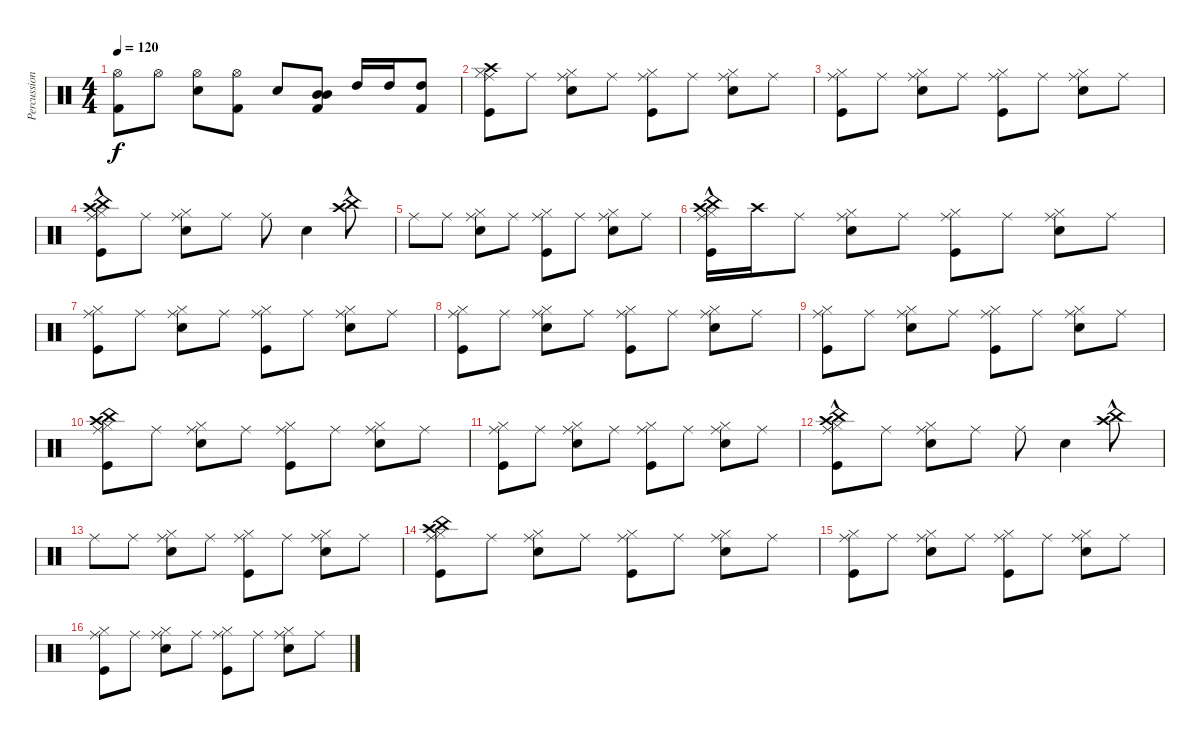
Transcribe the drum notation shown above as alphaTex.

\track ("Percussion" "Percussion") {instrument percussion}
\staff {score}
\articulation defaults
\ts (4 4)
\tempo 120
\clef neutral
\ks c
("Hi-Hat (open)" "Kick (hit) 2").8{dy f} "Hi-Hat (open)".8 ("Hi-Hat (open)" "Snare (hit) 2").8 ("Hi-Hat (open)" "Kick (hit) 2").8 "Snare (hit) 2".8 ("Mid Tom (hit)" "Mid Tom (hit)" "Kick (hit) 2").8 "High Tom (hit)".16 "High Tom (hit)".16 ("Kick (hit) 2" "High Tom (hit)").8 |
("Crash high (hit)" "Ride (middle)" "Hi-Hat (closed)" "Kick (hit)").8 "Ride (middle)".8 ("Ride (middle)" "Hi-Hat (closed)" "Snare (hit) 2").8 "Ride (middle)".8 ("Ride (middle)" "Hi-Hat (closed)" "Kick (hit)").8 "Ride (middle)".8 ("Ride (middle)" "Hi-Hat (closed)" "Snare (hit) 2").8 "Ride (middle)".8 |
("Hi-Hat (closed)" "Kick (hit)" "Ride (middle)").8 "Ride (middle)".8 ("Ride (middle)" "Hi-Hat (closed)" "Snare (hit) 2").8 "Ride (middle)".8 ("Ride (middle)" "Hi-Hat (closed)" "Kick (hit)").8 "Ride (middle)".8 ("Ride (middle)" "Hi-Hat (closed)" "Snare (hit) 2").8 "Ride (middle)".8 |
("Ride (middle)"{hac} "Hi-Hat (closed)"{hac} "Kick (hit)"{hac} "China (hit)"{hac} "Crash high (hit)"{hac}).8 "Ride (middle)".8 ("Ride (middle)" "Hi-Hat (closed)" "Snare (hit) 2").8 "Ride (middle)".8 "Ride (middle)".8 "Snare (hit) 2".4 ("Crash high (hit)"{hac} "China (hit)").8 |
"Ride (middle)".8 "Ride (middle)".8 ("Ride (middle)" "Hi-Hat (closed)" "Snare (hit) 2").8 "Ride (middle)".8 ("Ride (middle)" "Hi-Hat (closed)" "Kick (hit)").8 "Ride (middle)".8 ("Ride (middle)" "Hi-Hat (closed)" "Snare (hit) 2").8 "Ride (middle)".8 |
("Crash high (hit)" "Ride (middle)"{hac} "Hi-Hat (closed)"{hac} "Kick (hit)"{hac} "China (hit)"{hac}).16 "Crash high (hit)".16 "Ride (middle)".8 ("Ride (middle)" "Hi-Hat (closed)" "Snare (hit) 2").8 "Ride (middle)".8 ("Ride (middle)" "Hi-Hat (closed)" "Kick (hit)").8 "Ride (middle)".8 ("Ride (middle)" "Hi-Hat (closed)" "Snare (hit) 2").8 "Ride (middle)".8 |
("Hi-Hat (closed)" "Kick (hit)" "Ride (middle)").8 "Ride (middle)".8 ("Ride (middle)" "Hi-Hat (closed)" "Snare (hit) 2").8 "Ride (middle)".8 ("Ride (middle)" "Hi-Hat (closed)" "Kick (hit)").8 "Ride (middle)".8 ("Ride (middle)" "Hi-Hat (closed)" "Snare (hit) 2").8 "Ride (middle)".8 |
("Hi-Hat (closed)" "Kick (hit)" "Ride (middle)").8 "Ride (middle)".8 ("Ride (middle)" "Hi-Hat (closed)" "Snare (hit) 2").8 "Ride (middle)".8 ("Ride (middle)" "Hi-Hat (closed)" "Kick (hit)").8 "Ride (middle)".8 ("Ride (middle)" "Hi-Hat (closed)" "Snare (hit) 2").8 "Ride (middle)".8 |
("Hi-Hat (closed)" "Kick (hit)" "Ride (middle)").8 "Ride (middle)".8 ("Ride (middle)" "Hi-Hat (closed)" "Snare (hit) 2").8 "Ride (middle)".8 ("Ride (middle)" "Hi-Hat (closed)" "Kick (hit)").8 "Ride (middle)".8 ("Ride (middle)" "Hi-Hat (closed)" "Snare (hit) 2").8 "Ride (middle)".8 |
("Crash high (hit)" "Ride (middle)" "Hi-Hat (closed)" "Kick (hit)" "China (hit)").8 "Ride (middle)".8 ("Ride (middle)" "Hi-Hat (closed)" "Snare (hit) 2").8 "Ride (middle)".8 ("Ride (middle)" "Hi-Hat (closed)" "Kick (hit)").8 "Ride (middle)".8 ("Ride (middle)" "Hi-Hat (closed)" "Snare (hit) 2").8 "Ride (middle)".8 |
("Hi-Hat (closed)" "Kick (hit)" "Ride (middle)").8 "Ride (middle)".8 ("Ride (middle)" "Hi-Hat (closed)" "Snare (hit) 2").8 "Ride (middle)".8 ("Ride (middle)" "Hi-Hat (closed)" "Kick (hit)").8 "Ride (middle)".8 ("Ride (middle)" "Hi-Hat (closed)" "Snare (hit) 2").8 "Ride (middle)".8 |
("Ride (middle)"{hac} "Hi-Hat (closed)"{hac} "Kick (hit)"{hac} "China (hit)"{hac} "Crash high (hit)"{hac}).8 "Ride (middle)".8 ("Ride (middle)" "Hi-Hat (closed)" "Snare (hit) 2").8 "Ride (middle)".8 "Ride (middle)".8 "Snare (hit) 2".4 ("Crash high (hit)"{hac} "China (hit)").8 |
"Ride (middle)".8 "Ride (middle)".8 ("Ride (middle)" "Hi-Hat (closed)" "Snare (hit) 2").8 "Ride (middle)".8 ("Ride (middle)" "Hi-Hat (closed)" "Kick (hit)").8 "Ride (middle)".8 ("Ride (middle)" "Hi-Hat (closed)" "Snare (hit) 2").8 "Ride (middle)".8 |
("Crash high (hit)" "Ride (middle)" "Hi-Hat (closed)" "Kick (hit)" "China (hit)").8 "Ride (middle)".8 ("Ride (middle)" "Hi-Hat (closed)" "Snare (hit) 2").8 "Ride (middle)".8 ("Ride (middle)" "Hi-Hat (closed)" "Kick (hit)").8 "Ride (middle)".8 ("Ride (middle)" "Hi-Hat (closed)" "Snare (hit) 2").8 "Ride (middle)".8 |
("Hi-Hat (closed)" "Kick (hit)" "Ride (middle)").8 "Ride (middle)".8 ("Ride (middle)" "Hi-Hat (closed)" "Snare (hit) 2").8 "Ride (middle)".8 ("Ride (middle)" "Hi-Hat (closed)" "Kick (hit)").8 "Ride (middle)".8 ("Ride (middle)" "Hi-Hat (closed)" "Snare (hit) 2").8 "Ride (middle)".8 |
("Hi-Hat (closed)" "Kick (hit)" "Ride (middle)").8 "Ride (middle)".8 ("Ride (middle)" "Hi-Hat (closed)" "Snare (hit) 2").8 "Ride (middle)".8 ("Ride (middle)" "Hi-Hat (closed)" "Kick (hit)").8 "Ride (middle)".8 ("Ride (middle)" "Hi-Hat (closed)" "Snare (hit) 2").8 "Ride (middle)".8
